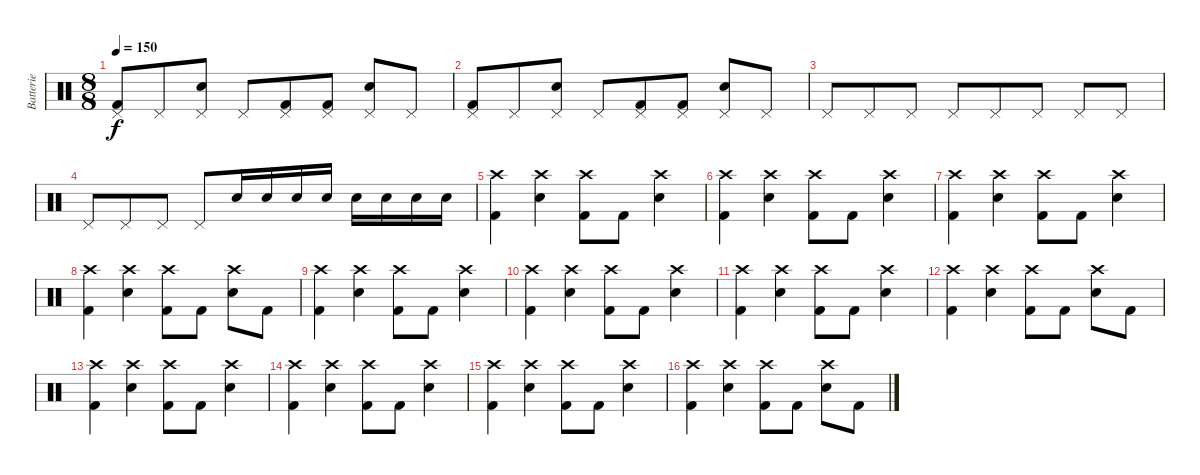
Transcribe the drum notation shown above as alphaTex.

\track ("Batterie" "Batterie") {instrument percussion}
\staff {score}
\articulation defaults
\ts (8 8)
\tempo 150
\clef neutral
\ks c
("Pedal Hi-Hat (hit)" "Kick (hit) 2").8{dy f} "Pedal Hi-Hat (hit)".8 ("Pedal Hi-Hat (hit)" "Snare (hit) 2").8 "Pedal Hi-Hat (hit)".8 ("Pedal Hi-Hat (hit)" "Kick (hit) 2").8 ("Pedal Hi-Hat (hit)" "Kick (hit) 2").8 ("Pedal Hi-Hat (hit)" "Snare (hit) 2").8 "Pedal Hi-Hat (hit)".8 |
("Pedal Hi-Hat (hit)" "Kick (hit) 2").8 "Pedal Hi-Hat (hit)".8 ("Pedal Hi-Hat (hit)" "Snare (hit) 2").8 "Pedal Hi-Hat (hit)".8 ("Pedal Hi-Hat (hit)" "Kick (hit) 2").8 ("Pedal Hi-Hat (hit)" "Kick (hit) 2").8 ("Pedal Hi-Hat (hit)" "Snare (hit) 2").8 "Pedal Hi-Hat (hit)".8 |
"Pedal Hi-Hat (hit)".8 "Pedal Hi-Hat (hit)".8 "Pedal Hi-Hat (hit)".8 "Pedal Hi-Hat (hit)".8 "Pedal Hi-Hat (hit)".8 "Pedal Hi-Hat (hit)".8 "Pedal Hi-Hat (hit)".8 "Pedal Hi-Hat (hit)".8 |
"Pedal Hi-Hat (hit)".8 "Pedal Hi-Hat (hit)".8 "Pedal Hi-Hat (hit)".8 "Pedal Hi-Hat (hit)".8 "Snare (hit) 2".16 "Snare (hit) 2".16 "Snare (hit) 2".16 "Snare (hit) 2".16 "Snare (hit) 2".16 "Snare (hit) 2".16 "Snare (hit) 2".16 "Snare (hit) 2".16 |
("Crash high (hit)" "Kick (hit) 2").4 ("Crash high (hit)" "Snare (hit) 2").4 ("Crash high (hit)" "Kick (hit) 2").8 "Kick (hit) 2".8 ("Crash high (hit)" "Snare (hit) 2").4 |
("Crash high (hit)" "Kick (hit) 2").4 ("Crash high (hit)" "Snare (hit) 2").4 ("Crash high (hit)" "Kick (hit) 2").8 "Kick (hit) 2".8 ("Crash high (hit)" "Snare (hit) 2").4 |
("Crash high (hit)" "Kick (hit) 2").4 ("Crash high (hit)" "Snare (hit) 2").4 ("Crash high (hit)" "Kick (hit) 2").8 "Kick (hit) 2".8 ("Crash high (hit)" "Snare (hit) 2").4 |
("Crash high (hit)" "Kick (hit) 2").4 ("Crash high (hit)" "Snare (hit) 2").4 ("Crash high (hit)" "Kick (hit) 2").8 "Kick (hit) 2".8 ("Crash high (hit)" "Snare (hit) 2").8 "Kick (hit) 2".8 |
("Crash high (hit)" "Kick (hit) 2").4 ("Crash high (hit)" "Snare (hit) 2").4 ("Crash high (hit)" "Kick (hit) 2").8 "Kick (hit) 2".8 ("Crash high (hit)" "Snare (hit) 2").4 |
("Crash high (hit)" "Kick (hit) 2").4 ("Crash high (hit)" "Snare (hit) 2").4 ("Crash high (hit)" "Kick (hit) 2").8 "Kick (hit) 2".8 ("Crash high (hit)" "Snare (hit) 2").4 |
("Crash high (hit)" "Kick (hit) 2").4 ("Crash high (hit)" "Snare (hit) 2").4 ("Crash high (hit)" "Kick (hit) 2").8 "Kick (hit) 2".8 ("Crash high (hit)" "Snare (hit) 2").4 |
("Crash high (hit)" "Kick (hit) 2").4 ("Crash high (hit)" "Snare (hit) 2").4 ("Crash high (hit)" "Kick (hit) 2").8 "Kick (hit) 2".8 ("Crash high (hit)" "Snare (hit) 2").8 "Kick (hit) 2".8 |
("Crash high (hit)" "Kick (hit) 2").4 ("Crash high (hit)" "Snare (hit) 2").4 ("Crash high (hit)" "Kick (hit) 2").8 "Kick (hit) 2".8 ("Crash high (hit)" "Snare (hit) 2").4 |
("Crash high (hit)" "Kick (hit) 2").4 ("Crash high (hit)" "Snare (hit) 2").4 ("Crash high (hit)" "Kick (hit) 2").8 "Kick (hit) 2".8 ("Crash high (hit)" "Snare (hit) 2").4 |
("Crash high (hit)" "Kick (hit) 2").4 ("Crash high (hit)" "Snare (hit) 2").4 ("Crash high (hit)" "Kick (hit) 2").8 "Kick (hit) 2".8 ("Crash high (hit)" "Snare (hit) 2").4 |
("Crash high (hit)" "Kick (hit) 2").4 ("Crash high (hit)" "Snare (hit) 2").4 ("Crash high (hit)" "Kick (hit) 2").8 "Kick (hit) 2".8 ("Crash high (hit)" "Snare (hit) 2").8 "Kick (hit) 2".8
